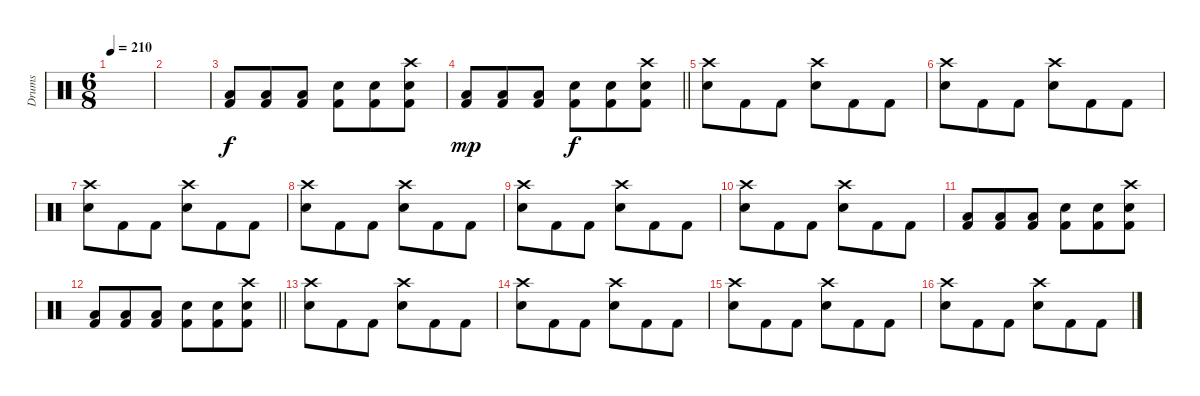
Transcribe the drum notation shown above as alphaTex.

\track ("Drums" "Drums") {instrument percussion}
\staff {score}
\articulation defaults
\ts (6 8)
\tempo 210
\clef neutral
\ks c
|
|
("Low Tom (hit)" "Kick (hit) 2").8 ("Low Tom (hit)" "Kick (hit) 2").8 ("Low Tom (hit)" "Kick (hit) 2").8 ("Snare (hit) 2" "Kick (hit) 2").8{dy f} ("Snare (hit) 2" "Kick (hit) 2").8 ("Crash high (hit)" "Snare (hit) 2" "Kick (hit) 2").8 |
\barLineRight lightlight
("Low Tom (hit)" "Kick (hit) 2").8{dy mp} ("Low Tom (hit)" "Kick (hit) 2").8 ("Low Tom (hit)" "Kick (hit) 2").8 ("Snare (hit) 2" "Kick (hit) 2").8{dy f} ("Snare (hit) 2" "Kick (hit) 2").8 ("Crash high (hit)" "Snare (hit) 2" "Kick (hit) 2").8 |
("Crash high (hit)" "Snare (hit) 2").8 "Kick (hit) 2".8 "Kick (hit) 2".8 ("Crash high (hit)" "Snare (hit) 2").8 "Kick (hit) 2".8 "Kick (hit) 2".8 |
("Crash high (hit)" "Snare (hit) 2").8 "Kick (hit) 2".8 "Kick (hit) 2".8 ("Crash high (hit)" "Snare (hit) 2").8 "Kick (hit) 2".8 "Kick (hit) 2".8 |
("Crash high (hit)" "Snare (hit) 2").8 "Kick (hit) 2".8 "Kick (hit) 2".8 ("Crash high (hit)" "Snare (hit) 2").8 "Kick (hit) 2".8 "Kick (hit) 2".8 |
("Crash high (hit)" "Snare (hit) 2").8 "Kick (hit) 2".8 "Kick (hit) 2".8 ("Crash high (hit)" "Snare (hit) 2").8 "Kick (hit) 2".8 "Kick (hit) 2".8 |
("Crash high (hit)" "Snare (hit) 2").8 "Kick (hit) 2".8 "Kick (hit) 2".8 ("Crash high (hit)" "Snare (hit) 2").8 "Kick (hit) 2".8 "Kick (hit) 2".8 |
("Crash high (hit)" "Snare (hit) 2").8 "Kick (hit) 2".8 "Kick (hit) 2".8 ("Crash high (hit)" "Snare (hit) 2").8 "Kick (hit) 2".8 "Kick (hit) 2".8 |
("Low Tom (hit)" "Kick (hit) 2").8 ("Low Tom (hit)" "Kick (hit) 2").8 ("Low Tom (hit)" "Kick (hit) 2").8 ("Snare (hit) 2" "Kick (hit) 2").8 ("Snare (hit) 2" "Kick (hit) 2").8 ("Crash high (hit)" "Snare (hit) 2" "Kick (hit) 2").8 |
\barLineRight lightlight
("Low Tom (hit)" "Kick (hit) 2").8 ("Low Tom (hit)" "Kick (hit) 2").8 ("Low Tom (hit)" "Kick (hit) 2").8 ("Snare (hit) 2" "Kick (hit) 2").8 ("Snare (hit) 2" "Kick (hit) 2").8 ("Crash high (hit)" "Snare (hit) 2" "Kick (hit) 2").8 |
("Crash high (hit)" "Snare (hit) 2").8 "Kick (hit) 2".8 "Kick (hit) 2".8 ("Crash high (hit)" "Snare (hit) 2").8 "Kick (hit) 2".8 "Kick (hit) 2".8 |
("Crash high (hit)" "Snare (hit) 2").8 "Kick (hit) 2".8 "Kick (hit) 2".8 ("Crash high (hit)" "Snare (hit) 2").8 "Kick (hit) 2".8 "Kick (hit) 2".8 |
("Crash high (hit)" "Snare (hit) 2").8 "Kick (hit) 2".8 "Kick (hit) 2".8 ("Crash high (hit)" "Snare (hit) 2").8 "Kick (hit) 2".8 "Kick (hit) 2".8 |
("Crash high (hit)" "Snare (hit) 2").8 "Kick (hit) 2".8 "Kick (hit) 2".8 ("Crash high (hit)" "Snare (hit) 2").8 "Kick (hit) 2".8 "Kick (hit) 2".8
